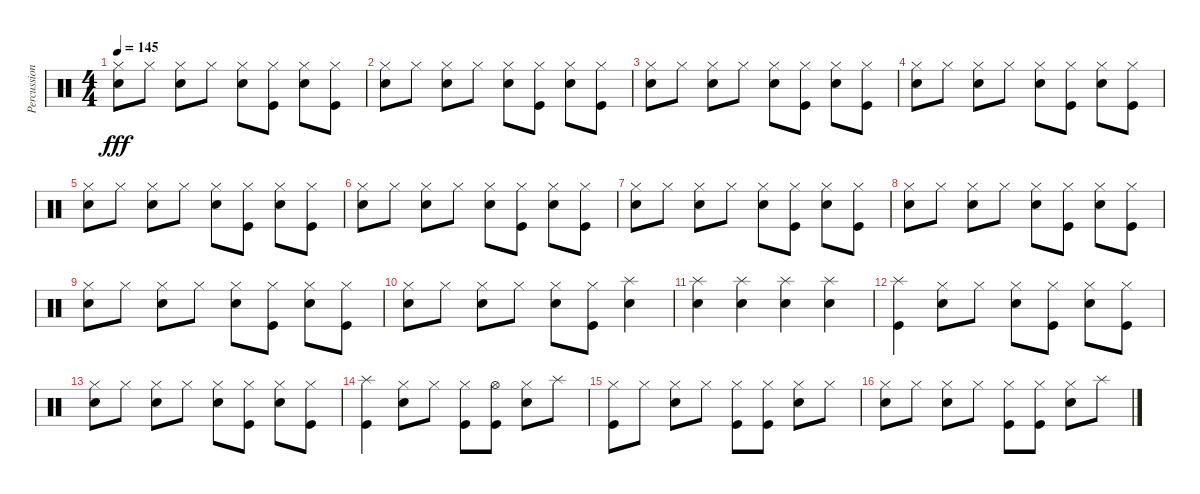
\track ("Percussion" "Percussion") {instrument percussion}
\staff {score}
\articulation defaults
\ts (4 4)
\tempo 145
\clef neutral
\ks c
("Hi-Hat (closed)" "Snare (hit) 2").8{dy fff} "Hi-Hat (closed)".8 ("Hi-Hat (closed)" "Snare (hit) 2").8 "Hi-Hat (closed)".8 ("Hi-Hat (closed)" "Snare (hit) 2").8 ("Hi-Hat (closed)" "Kick (hit)").8 ("Hi-Hat (closed)" "Snare (hit) 2").8 ("Hi-Hat (closed)" "Kick (hit)").8 |
("Hi-Hat (closed)" "Snare (hit) 2").8 "Hi-Hat (closed)".8 ("Hi-Hat (closed)" "Snare (hit) 2").8 "Hi-Hat (closed)".8 ("Hi-Hat (closed)" "Snare (hit) 2").8 ("Hi-Hat (closed)" "Kick (hit)").8 ("Hi-Hat (closed)" "Snare (hit) 2").8 ("Hi-Hat (closed)" "Kick (hit)").8 |
("Hi-Hat (closed)" "Snare (hit) 2").8 "Hi-Hat (closed)".8 ("Hi-Hat (closed)" "Snare (hit) 2").8 "Hi-Hat (closed)".8 ("Hi-Hat (closed)" "Snare (hit) 2").8 ("Hi-Hat (closed)" "Kick (hit)").8 ("Hi-Hat (closed)" "Snare (hit) 2").8 ("Hi-Hat (closed)" "Kick (hit)").8 |
("Hi-Hat (closed)" "Snare (hit) 2").8 "Hi-Hat (closed)".8 ("Hi-Hat (closed)" "Snare (hit) 2").8 "Hi-Hat (closed)".8 ("Hi-Hat (closed)" "Snare (hit) 2").8 ("Hi-Hat (closed)" "Kick (hit)").8 ("Hi-Hat (closed)" "Snare (hit) 2").8 ("Hi-Hat (closed)" "Kick (hit)").8 |
("Hi-Hat (closed)" "Snare (hit) 2").8 "Hi-Hat (closed)".8 ("Hi-Hat (closed)" "Snare (hit) 2").8 "Hi-Hat (closed)".8 ("Hi-Hat (closed)" "Snare (hit) 2").8 ("Hi-Hat (closed)" "Kick (hit)").8 ("Hi-Hat (closed)" "Snare (hit) 2").8 ("Hi-Hat (closed)" "Kick (hit)").8 |
("Hi-Hat (closed)" "Snare (hit) 2").8 "Hi-Hat (closed)".8 ("Hi-Hat (closed)" "Snare (hit) 2").8 "Hi-Hat (closed)".8 ("Hi-Hat (closed)" "Snare (hit) 2").8 ("Hi-Hat (closed)" "Kick (hit)").8 ("Hi-Hat (closed)" "Snare (hit) 2").8 ("Hi-Hat (closed)" "Kick (hit)").8 |
("Hi-Hat (closed)" "Snare (hit) 2").8 "Hi-Hat (closed)".8 ("Hi-Hat (closed)" "Snare (hit) 2").8 "Hi-Hat (closed)".8 ("Hi-Hat (closed)" "Snare (hit) 2").8 ("Hi-Hat (closed)" "Kick (hit)").8 ("Hi-Hat (closed)" "Snare (hit) 2").8 ("Hi-Hat (closed)" "Kick (hit)").8 |
("Hi-Hat (closed)" "Snare (hit) 2").8 "Hi-Hat (closed)".8 ("Hi-Hat (closed)" "Snare (hit) 2").8 "Hi-Hat (closed)".8 ("Hi-Hat (closed)" "Snare (hit) 2").8 ("Hi-Hat (closed)" "Kick (hit)").8 ("Hi-Hat (closed)" "Snare (hit) 2").8 ("Hi-Hat (closed)" "Kick (hit)").8 |
("Hi-Hat (closed)" "Snare (hit) 2").8 "Hi-Hat (closed)".8 ("Hi-Hat (closed)" "Snare (hit) 2").8 "Hi-Hat (closed)".8 ("Hi-Hat (closed)" "Snare (hit) 2").8 ("Hi-Hat (closed)" "Kick (hit)").8 ("Hi-Hat (closed)" "Snare (hit) 2").8 ("Hi-Hat (closed)" "Kick (hit)").8 |
("Hi-Hat (closed)" "Snare (hit) 2").8 "Hi-Hat (closed)".8 ("Hi-Hat (closed)" "Snare (hit) 2").8 "Hi-Hat (closed)".8 ("Hi-Hat (closed)" "Snare (hit) 2").8 ("Hi-Hat (closed)" "Kick (hit)").8 ("Splash (hit)" "Snare (hit) 2").4 |
("Splash (hit)" "Snare (hit) 2").4 ("Splash (hit)" "Snare (hit) 2").4 ("Splash (hit)" "Snare (hit) 2").4 ("Splash (hit)" "Snare (hit) 2").4 |
("Splash (hit)" "Kick (hit)").4 ("Hi-Hat (closed)" "Snare (hit) 2").8 "Hi-Hat (closed)".8 ("Hi-Hat (closed)" "Snare (hit) 2").8 ("Hi-Hat (closed)" "Kick (hit)").8 ("Hi-Hat (closed)" "Snare (hit) 2").8 ("Hi-Hat (closed)" "Kick (hit)").8 |
("Hi-Hat (closed)" "Snare (hit) 2").8 "Hi-Hat (closed)".8 ("Hi-Hat (closed)" "Snare (hit) 2").8 "Hi-Hat (closed)".8 ("Hi-Hat (closed)" "Snare (hit) 2").8 ("Hi-Hat (closed)" "Kick (hit)").8 ("Hi-Hat (closed)" "Snare (hit) 2").8 ("Hi-Hat (closed)" "Kick (hit)").8 |
("Splash (hit)" "Kick (hit)").4 ("Hi-Hat (closed)" "Snare (hit) 2").8 "Hi-Hat (closed)".8 ("Hi-Hat (closed)" "Kick (hit)").8 ("Hi-Hat (open)" "Kick (hit)").8 ("Hi-Hat (closed)" "Snare (hit) 2").8 "Splash (hit)".8 |
("Hi-Hat (closed)" "Kick (hit)").8 "Hi-Hat (closed)".8 ("Hi-Hat (closed)" "Snare (hit) 2").8 "Hi-Hat (closed)".8 ("Hi-Hat (closed)" "Kick (hit)").8 ("Hi-Hat (closed)" "Kick (hit)").8 ("Hi-Hat (closed)" "Snare (hit) 2").8 "Hi-Hat (closed)".8 |
("Hi-Hat (closed)" "Snare (hit) 2").8 "Hi-Hat (closed)".8 ("Hi-Hat (closed)" "Snare (hit) 2").8 "Hi-Hat (closed)".8 ("Hi-Hat (closed)" "Kick (hit)").8 ("Hi-Hat (closed)" "Kick (hit)").8 ("Hi-Hat (closed)" "Snare (hit) 2").8 "Splash (hit)".8
